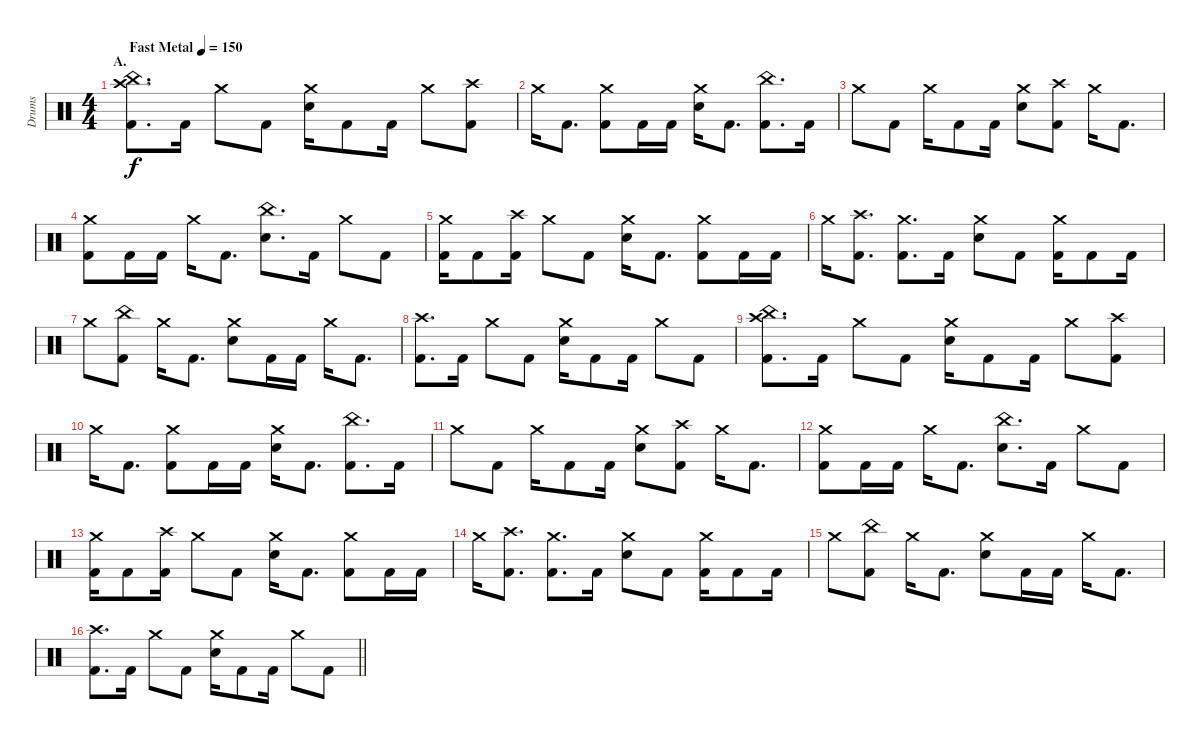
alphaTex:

\track ("Drums" "Drums") {instrument percussion}
\staff {score}
\articulation defaults
\ts (4 4)
\section ("" "A.")
\tempo (150 "Fast Metal")
\clef neutral
\ks c
("China (hit)" "Crash high (hit)" "Kick (hit) 2").8{d dy f} "Kick (hit) 2".16 "Crash medium (hit)".8 "Kick (hit) 2".8 ("Crash medium (hit)" "Electric Snare (hit)").16 "Kick (hit) 2".8 "Kick (hit) 2".16 "Crash medium (hit)".8 ("Crash high (hit)" "Kick (hit) 2").8 |
"Crash medium (hit)".16 "Kick (hit) 2".8{d} ("Crash medium (hit)" "Kick (hit) 2").8 "Kick (hit) 2".16 "Kick (hit) 2".16 ("Crash medium (hit)" "Electric Snare (hit)").16 "Kick (hit) 2".8{d} ("China (hit)" "Kick (hit) 2").8{d} "Kick (hit) 2".16 |
"Crash medium (hit)".8 "Kick (hit) 2".8 "Crash medium (hit)".16 "Kick (hit) 2".8 "Kick (hit) 2".16 ("Crash medium (hit)" "Electric Snare (hit)").8 ("Crash high (hit)" "Kick (hit) 2").8 "Crash medium (hit)".16 "Kick (hit) 2".8{d} |
("Crash medium (hit)" "Kick (hit) 2").8 "Kick (hit) 2".16 "Kick (hit) 2".16 "Crash medium (hit)".16 "Kick (hit) 2".8{d} ("China (hit)" "Electric Snare (hit)").8{d} "Kick (hit) 2".16 "Crash medium (hit)".8 "Kick (hit) 2".8 |
("Crash medium (hit)" "Kick (hit) 2").16 "Kick (hit) 2".8 ("Crash high (hit)" "Kick (hit) 2").16 "Crash medium (hit)".8 "Kick (hit) 2".8 ("Crash medium (hit)" "Electric Snare (hit)").16 "Kick (hit) 2".8{d} ("Crash medium (hit)" "Kick (hit) 2").8 "Kick (hit) 2".16 "Kick (hit) 2".16 |
"Crash medium (hit)".16 ("Crash high (hit)" "Kick (hit) 2").8{d} ("Crash medium (hit)" "Kick (hit) 2").8{d} "Kick (hit) 2".16 ("Crash medium (hit)" "Electric Snare (hit)").8 "Kick (hit) 2".8 ("Crash medium (hit)" "Kick (hit) 2").16 "Kick (hit) 2".8 "Kick (hit) 2".16 |
"Crash medium (hit)".8 ("China (hit)" "Kick (hit) 2").8 "Crash medium (hit)".16 "Kick (hit) 2".8{d} ("Crash medium (hit)" "Electric Snare (hit)").8 "Kick (hit) 2".16 "Kick (hit) 2".16 "Crash medium (hit)".16 "Kick (hit) 2".8{d} |
("Crash high (hit)" "Kick (hit) 2").8{d} "Kick (hit) 2".16 "Crash medium (hit)".8 "Kick (hit) 2".8 ("Crash medium (hit)" "Electric Snare (hit)").16 "Kick (hit) 2".8 "Kick (hit) 2".16 "Crash medium (hit)".8 "Kick (hit) 2".8 |
("China (hit)" "Crash high (hit)" "Kick (hit) 2").8{d} "Kick (hit) 2".16 "Crash medium (hit)".8 "Kick (hit) 2".8 ("Crash medium (hit)" "Electric Snare (hit)").16 "Kick (hit) 2".8 "Kick (hit) 2".16 "Crash medium (hit)".8 ("Crash high (hit)" "Kick (hit) 2").8 |
"Crash medium (hit)".16 "Kick (hit) 2".8{d} ("Crash medium (hit)" "Kick (hit) 2").8 "Kick (hit) 2".16 "Kick (hit) 2".16 ("Crash medium (hit)" "Electric Snare (hit)").16 "Kick (hit) 2".8{d} ("China (hit)" "Kick (hit) 2").8{d} "Kick (hit) 2".16 |
"Crash medium (hit)".8 "Kick (hit) 2".8 "Crash medium (hit)".16 "Kick (hit) 2".8 "Kick (hit) 2".16 ("Crash medium (hit)" "Electric Snare (hit)").8 ("Crash high (hit)" "Kick (hit) 2").8 "Crash medium (hit)".16 "Kick (hit) 2".8{d} |
("Crash medium (hit)" "Kick (hit) 2").8 "Kick (hit) 2".16 "Kick (hit) 2".16 "Crash medium (hit)".16 "Kick (hit) 2".8{d} ("China (hit)" "Electric Snare (hit)").8{d} "Kick (hit) 2".16 "Crash medium (hit)".8 "Kick (hit) 2".8 |
("Crash medium (hit)" "Kick (hit) 2").16 "Kick (hit) 2".8 ("Crash high (hit)" "Kick (hit) 2").16 "Crash medium (hit)".8 "Kick (hit) 2".8 ("Crash medium (hit)" "Electric Snare (hit)").16 "Kick (hit) 2".8{d} ("Crash medium (hit)" "Kick (hit) 2").8 "Kick (hit) 2".16 "Kick (hit) 2".16 |
"Crash medium (hit)".16 ("Crash high (hit)" "Kick (hit) 2").8{d} ("Crash medium (hit)" "Kick (hit) 2").8{d} "Kick (hit) 2".16 ("Crash medium (hit)" "Electric Snare (hit)").8 "Kick (hit) 2".8 ("Crash medium (hit)" "Kick (hit) 2").16 "Kick (hit) 2".8 "Kick (hit) 2".16 |
"Crash medium (hit)".8 ("China (hit)" "Kick (hit) 2").8 "Crash medium (hit)".16 "Kick (hit) 2".8{d} ("Crash medium (hit)" "Electric Snare (hit)").8 "Kick (hit) 2".16 "Kick (hit) 2".16 "Crash medium (hit)".16 "Kick (hit) 2".8{d} |
\barLineRight lightlight
("Crash high (hit)" "Kick (hit) 2").8{d} "Kick (hit) 2".16 "Crash medium (hit)".8 "Kick (hit) 2".8 ("Crash medium (hit)" "Electric Snare (hit)").16 "Kick (hit) 2".8 "Kick (hit) 2".16 "Crash medium (hit)".8 "Kick (hit) 2".8
